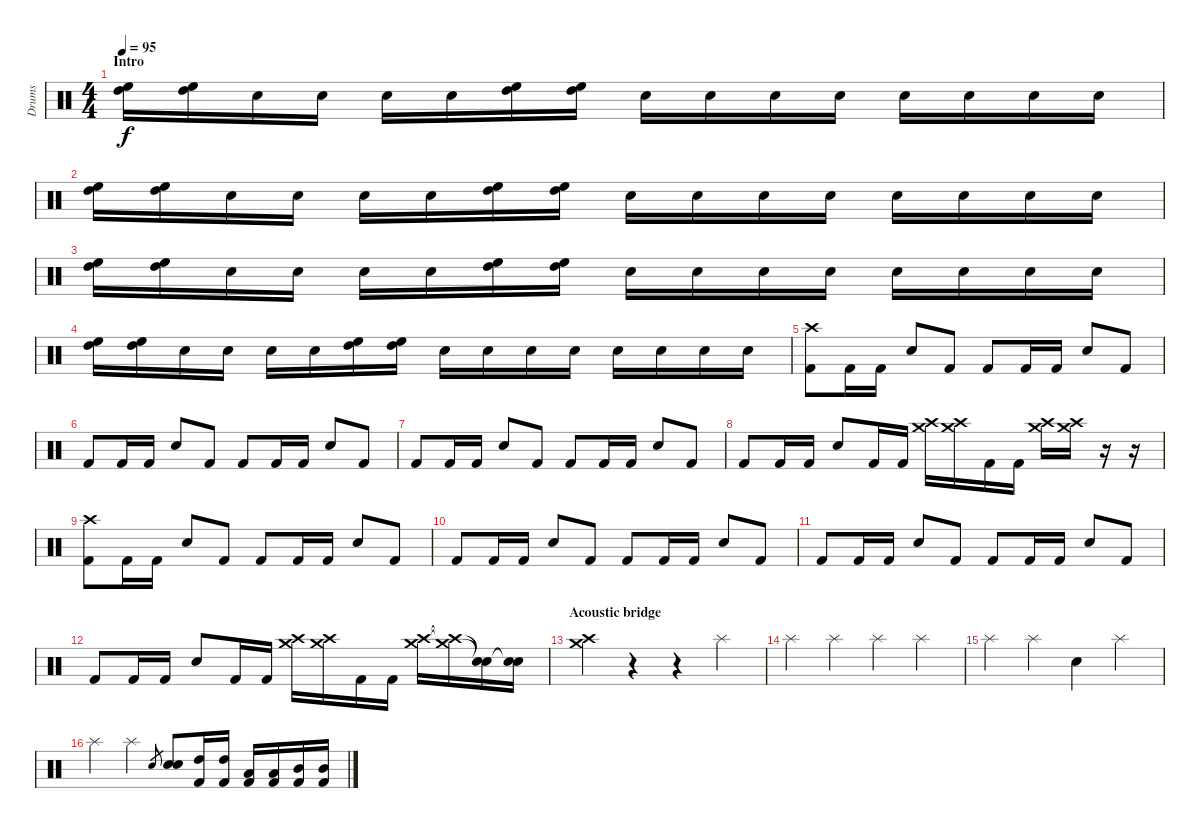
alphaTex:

\track ("Drums" "Drums") {instrument percussion}
\staff {score}
\articulation defaults
\ts (4 4)
\section ("" "Intro")
\tempo 95
\clef neutral
\ks c
("High Floor Tom (hit)" "High Tom (hit)").16{dy f} ("High Floor Tom (hit)" "High Tom (hit)").16 "Snare (hit)"{x}.16 "Snare (hit)"{x}.16 "Snare (hit)"{x}.16 "Snare (hit)"{x}.16 ("High Floor Tom (hit)" "High Tom (hit)").16 ("High Floor Tom (hit)" "High Tom (hit)").16 "Snare (hit)"{x}.16 "Snare (hit)"{x}.16 "Snare (hit)"{x}.16 "Snare (hit)"{x}.16 "Snare (hit)"{x}.16 "Snare (hit)"{x}.16 "Snare (hit)"{x}.16 "Snare (hit)"{x}.16 |
("High Floor Tom (hit)" "High Tom (hit)").16 ("High Floor Tom (hit)" "High Tom (hit)").16 "Snare (hit)"{x}.16 "Snare (hit)"{x}.16 "Snare (hit)"{x}.16 "Snare (hit)"{x}.16 ("High Floor Tom (hit)" "High Tom (hit)").16 ("High Floor Tom (hit)" "High Tom (hit)").16 "Snare (hit)"{x}.16 "Snare (hit)"{x}.16 "Snare (hit)"{x}.16 "Snare (hit)"{x}.16 "Snare (hit)"{x}.16 "Snare (hit)"{x}.16 "Snare (hit)"{x}.16 "Snare (hit)"{x}.16 |
("High Floor Tom (hit)" "High Tom (hit)").16 ("High Floor Tom (hit)" "High Tom (hit)").16 "Snare (hit)"{x}.16 "Snare (hit)"{x}.16 "Snare (hit)"{x}.16 "Snare (hit)"{x}.16 ("High Floor Tom (hit)" "High Tom (hit)").16 ("High Floor Tom (hit)" "High Tom (hit)").16 "Snare (hit)"{x}.16 "Snare (hit)"{x}.16 "Snare (hit)"{x}.16 "Snare (hit)"{x}.16 "Snare (hit)"{x}.16 "Snare (hit)"{x}.16 "Snare (hit)"{x}.16 "Snare (hit)"{x}.16 |
("High Floor Tom (hit)" "High Tom (hit)").16 ("High Floor Tom (hit)" "High Tom (hit)").16 "Snare (hit)"{x}.16 "Snare (hit)"{x}.16 "Snare (hit)"{x}.16 "Snare (hit)"{x}.16 ("High Floor Tom (hit)" "High Tom (hit)").16 ("High Floor Tom (hit)" "High Tom (hit)").16 "Snare (hit)"{x}.16 "Snare (hit)"{x}.16 "Snare (hit)"{x}.16 "Snare (hit)"{x}.16 "Snare (hit)"{x}.16 "Snare (hit)"{x}.16 "Snare (hit)"{x}.16 "Snare (hit)"{x}.16 |
("Crash high (hit)" "Kick (hit) 2").8 "Kick (hit) 2".16 "Kick (hit) 2".16 "Electric Snare (hit)".8 "Kick (hit) 2".8 "Kick (hit) 2".8 "Kick (hit) 2".16 "Kick (hit) 2".16 "Electric Snare (hit)".8 "Kick (hit) 2".8 |
"Kick (hit) 2".8 "Kick (hit) 2".16 "Kick (hit) 2".16 "Electric Snare (hit)".8 "Kick (hit) 2".8 "Kick (hit) 2".8 "Kick (hit) 2".16 "Kick (hit) 2".16 "Electric Snare (hit)".8 "Kick (hit) 2".8 |
"Kick (hit) 2".8 "Kick (hit) 2".16 "Kick (hit) 2".16 "Electric Snare (hit)".8 "Kick (hit) 2".8 "Kick (hit) 2".8 "Kick (hit) 2".16 "Kick (hit) 2".16 "Electric Snare (hit)".8 "Kick (hit) 2".8 |
"Kick (hit) 2".8 "Kick (hit) 2".16 "Kick (hit) 2".16 "Electric Snare (hit)".8 "Kick (hit) 2".16 "Kick (hit) 2".16 ("Crash high (hit)" "Crash medium (hit)").16 ("Crash high (hit)" "Crash medium (hit)").16 "Kick (hit) 2".16 "Kick (hit) 2".16 ("Crash high (hit)" "Crash medium (hit)").16 ("Crash high (hit)" "Crash medium (hit)").16 r.16 r.16 |
("Crash high (hit)" "Kick (hit) 2").8 "Kick (hit) 2".16 "Kick (hit) 2".16 "Electric Snare (hit)".8 "Kick (hit) 2".8 "Kick (hit) 2".8 "Kick (hit) 2".16 "Kick (hit) 2".16 "Electric Snare (hit)".8 "Kick (hit) 2".8 |
"Kick (hit) 2".8 "Kick (hit) 2".16 "Kick (hit) 2".16 "Electric Snare (hit)".8 "Kick (hit) 2".8 "Kick (hit) 2".8 "Kick (hit) 2".16 "Kick (hit) 2".16 "Electric Snare (hit)".8 "Kick (hit) 2".8 |
"Kick (hit) 2".8 "Kick (hit) 2".16 "Kick (hit) 2".16 "Electric Snare (hit)".8 "Kick (hit) 2".8 "Kick (hit) 2".8 "Kick (hit) 2".16 "Kick (hit) 2".16 "Electric Snare (hit)".8 "Kick (hit) 2".8 |
"Kick (hit) 2".8 "Kick (hit) 2".16 "Kick (hit) 2".16 "Electric Snare (hit)".8 "Kick (hit) 2".16 "Kick (hit) 2".16 ("Crash high (hit)" "Crash medium (hit)").16 ("Crash high (hit)" "Crash medium (hit)").16 "Kick (hit) 2".16 "Kick (hit) 2".16 ("Crash high (hit)" "Crash medium (hit)").16 ("Crash high (hit)"{t} "Crash medium (hit)"{t}).16 ("Snare (hit)"{t} "Snare (hit)"{t}).16 ("Snare (hit)"{t} "Snare (hit)"{t}).16 |
\section ("" "Acoustic bridge")
("Crash high (hit)" "Crash medium (hit)").4 r.4 r.4 "Splash (hit)".4 |
"Splash (hit)"{x}.4 "Splash (hit)".4 "Splash (hit)"{x}.4 "Splash (hit)".4 |
"Splash (hit)"{x}.4 "Splash (hit)".4 "Snare (hit)"{x}.4 "Splash (hit)".4 |
"Splash (hit)"{x}.4 "Splash (hit)".4 "Electric Snare (hit)".8{gr} ("Electric Snare (hit)" "Electric Snare (hit)").8 ("High Tom (hit)" "Kick (hit) 2").16 ("High Tom (hit)" "Kick (hit) 2").16 ("Low Tom (hit)" "Kick (hit) 2").16 ("Low Tom (hit)" "Kick (hit) 2").16 ("Mid Tom (hit)" "Kick (hit) 2").16 ("Mid Tom (hit)" "Kick (hit) 2").16
